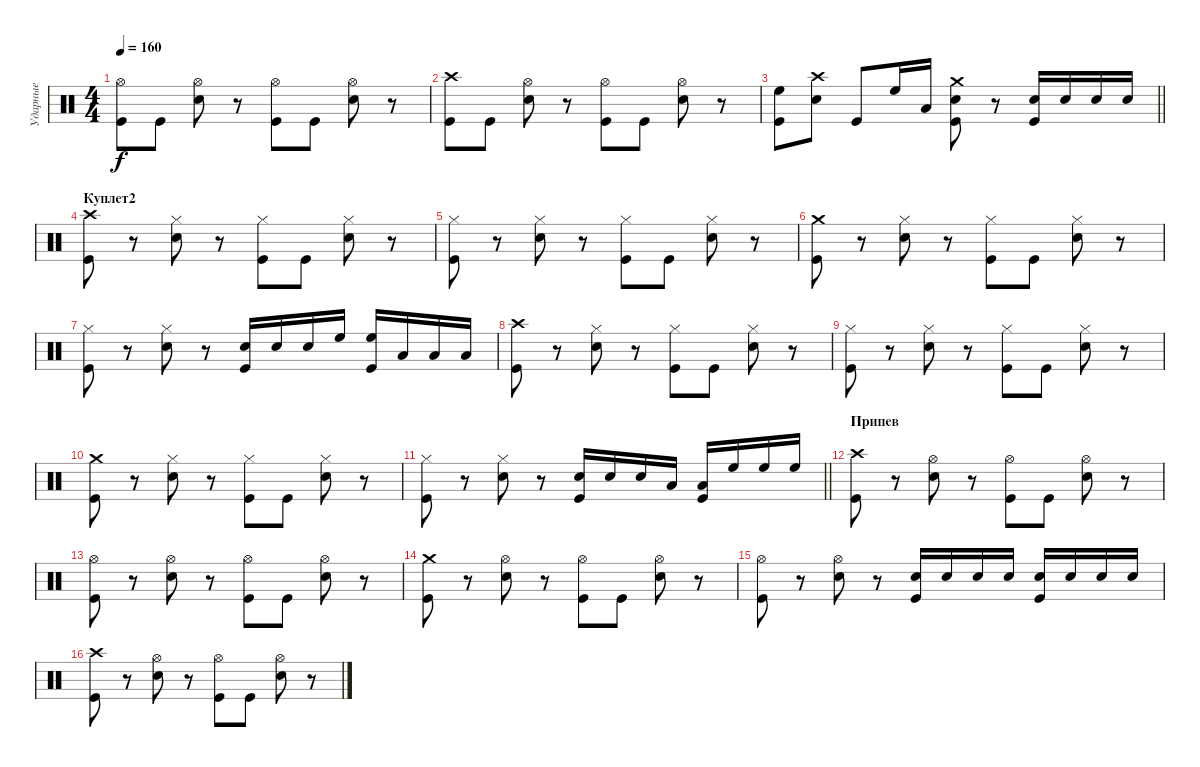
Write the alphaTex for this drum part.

\track ("Ударные" "Ударные") {instrument percussion}
\staff {score}
\articulation defaults
\ts (4 4)
\tempo 160
\clef neutral
\ks c
("Kick (hit)" "Hi-Hat (open)").8{dy f} "Kick (hit)".8 ("Snare (hit) 2" "Hi-Hat (open)").8 r.8 ("Kick (hit)" "Hi-Hat (open)").8 "Kick (hit)".8 ("Snare (hit) 2" "Hi-Hat (open)").8 r.8 |
("Kick (hit)" "Crash high (hit)").8 "Kick (hit)".8 ("Snare (hit) 2" "Hi-Hat (open)").8 r.8 ("Kick (hit)" "Hi-Hat (open)").8 "Kick (hit)".8 ("Snare (hit) 2" "Hi-Hat (open)").8 r.8 |
\barLineRight lightlight
("High Floor Tom (hit)" "Kick (hit)").8 ("Snare (hit) 2" "Crash high (hit)").8 "Kick (hit)".8 "High Floor Tom (hit)".16 "Low Tom (hit)".16 ("Snare (hit) 2" "Kick (hit)" "Crash medium (hit)").8 r.8 ("Snare (hit) 2" "Kick (hit)").16 "Snare (hit) 2".16 "Snare (hit) 2".16 "Snare (hit) 2".16 |
\section ("" "Куплет2")
("Kick (hit)" "Crash high (hit)").8 r.8 ("Snare (hit) 2" "Hi-Hat (closed)").8 r.8 ("Kick (hit)" "Hi-Hat (closed)").8 "Kick (hit)".8 ("Snare (hit) 2" "Hi-Hat (closed)").8 r.8 |
("Kick (hit)" "Hi-Hat (closed)").8 r.8 ("Snare (hit) 2" "Hi-Hat (closed)").8 r.8 ("Kick (hit)" "Hi-Hat (closed)").8 "Kick (hit)".8 ("Snare (hit) 2" "Hi-Hat (closed)").8 r.8 |
("Kick (hit)" "Crash medium (hit)").8 r.8 ("Snare (hit) 2" "Hi-Hat (closed)").8 r.8 ("Kick (hit)" "Hi-Hat (closed)").8 "Kick (hit)".8 ("Snare (hit) 2" "Hi-Hat (closed)").8 r.8 |
("Kick (hit)" "Hi-Hat (closed)").8 r.8 ("Snare (hit) 2" "Hi-Hat (closed)").8 r.8 ("Snare (hit) 2" "Kick (hit)").16 "Snare (hit) 2".16 "Snare (hit) 2".16 "High Floor Tom (hit)".16 ("High Floor Tom (hit)" "Kick (hit)").16 "Low Tom (hit)".16 "Low Tom (hit)".16 "Low Tom (hit)".16 |
("Kick (hit)" "Crash high (hit)").8 r.8 ("Snare (hit) 2" "Hi-Hat (closed)").8 r.8 ("Kick (hit)" "Hi-Hat (closed)").8 "Kick (hit)".8 ("Snare (hit) 2" "Hi-Hat (closed)").8 r.8 |
("Kick (hit)" "Hi-Hat (closed)").8 r.8 ("Snare (hit) 2" "Hi-Hat (closed)").8 r.8 ("Kick (hit)" "Hi-Hat (closed)").8 "Kick (hit)".8 ("Snare (hit) 2" "Hi-Hat (closed)").8 r.8 |
("Kick (hit)" "Crash medium (hit)").8 r.8 ("Snare (hit) 2" "Hi-Hat (closed)").8 r.8 ("Kick (hit)" "Hi-Hat (closed)").8 "Kick (hit)".8 ("Snare (hit) 2" "Hi-Hat (closed)").8 r.8 |
\barLineRight lightlight
("Kick (hit)" "Hi-Hat (closed)").8 r.8 ("Snare (hit) 2" "Hi-Hat (closed)").8 r.8 ("Snare (hit) 2" "Kick (hit)").16 "Snare (hit) 2".16 "Snare (hit) 2".16 "Low Tom (hit)".16 ("Low Tom (hit)" "Kick (hit)").16 "High Floor Tom (hit)".16 "High Floor Tom (hit)".16 "High Floor Tom (hit)".16 |
\section ("" "Припев")
("Kick (hit)" "Crash high (hit)").8 r.8 ("Snare (hit) 2" "Hi-Hat (open)").8 r.8 ("Kick (hit)" "Hi-Hat (open)").8 "Kick (hit)".8 ("Snare (hit) 2" "Hi-Hat (open)").8 r.8 |
("Kick (hit)" "Hi-Hat (open)").8 r.8 ("Snare (hit) 2" "Hi-Hat (open)").8 r.8 ("Kick (hit)" "Hi-Hat (open)").8 "Kick (hit)".8 ("Snare (hit) 2" "Hi-Hat (open)").8 r.8 |
("Kick (hit)" "Crash medium (hit)").8 r.8 ("Snare (hit) 2" "Hi-Hat (open)").8 r.8 ("Kick (hit)" "Hi-Hat (open)").8 "Kick (hit)".8 ("Snare (hit) 2" "Hi-Hat (open)").8 r.8 |
("Kick (hit)" "Hi-Hat (open)").8 r.8 ("Snare (hit) 2" "Hi-Hat (open)").8 r.8 ("Snare (hit) 2" "Kick (hit)").16 "Snare (hit) 2".16 "Snare (hit) 2".16 "Snare (hit) 2".16 ("Snare (hit) 2" "Kick (hit)").16 "Snare (hit) 2".16 "Snare (hit) 2".16 "Snare (hit) 2".16 |
("Kick (hit)" "Crash high (hit)").8 r.8 ("Snare (hit) 2" "Hi-Hat (open)").8 r.8 ("Kick (hit)" "Hi-Hat (open)").8 "Kick (hit)".8 ("Snare (hit) 2" "Hi-Hat (open)").8 r.8
